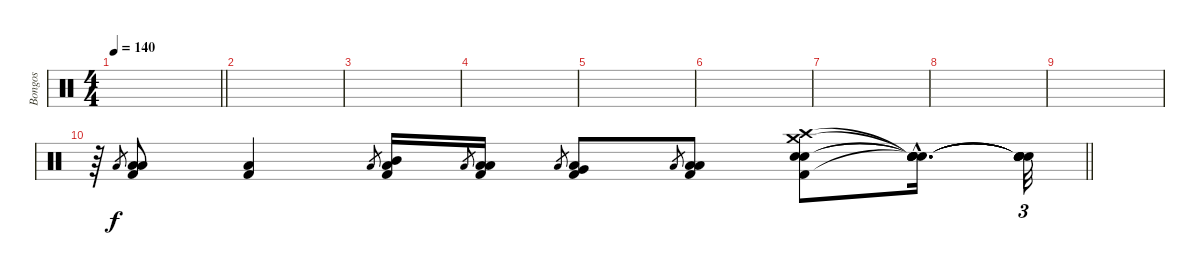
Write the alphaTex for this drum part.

\track ("Bongos" "Bongos") {instrument percussion}
\staff {score}
\articulation defaults
\ts (4 4)
\tempo 140
\clef neutral
\barLineRight lightlight
\ks c
|
|
|
|
|
|
|
|
|
\barLineRight lightlight
r.64{tu (3 2)} "Low Tom (hit)".8{gr} ("Low Tom (hit)" "Low Tom (hit)" "Kick (hit) 2").8 ("Low Floor Tom (hit)" "Kick (hit) 2").4 "Low Tom (hit)".8{gr} ("Mid Tom (hit)" "Low Tom (hit)" "Kick (hit) 2").16 "Low Tom (hit)".8{gr} ("Low Tom (hit)" "Low Tom (hit)" "Kick (hit) 2").16 "Low Tom (hit)".8{gr} ("Very Low Tom (hit)" "Low Tom (hit)" "Kick (hit) 2").8 "Low Tom (hit)".8{gr} ("Low Floor Tom (hit)" "Low Tom (hit)" "Kick (hit) 2").8 ("Crash high (hit)" "Electric Snare (hit)" "Electric Snare (hit)" "Crash medium (hit)" "Kick (hit) 2").8 ("Snare (hit)"{hac t} "Snare (hit)"{hac t} "Snare (hit)"{hac t} "Snare (hit)"{hac t} "Snare (hit)"{hac t}).16{d} ("Snare (hit)"{t} "Snare (hit)"{t} "Snare (hit)"{t} "Snare (hit)"{t} "Snare (hit)"{t}).32{tu (3 2)}
